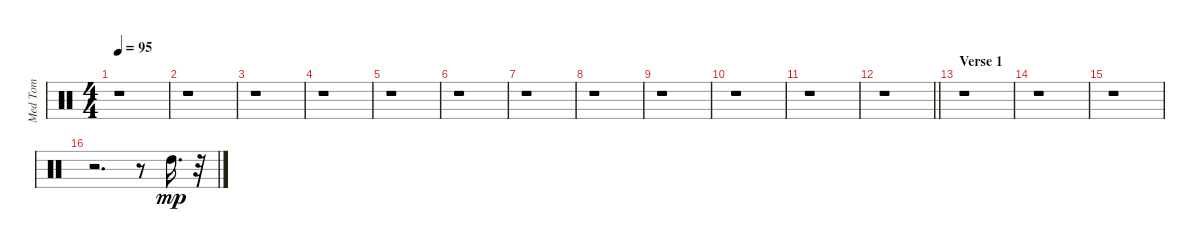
\track ("Med Tom" "Med Tom") {instrument percussion}
\staff {score}
\articulation defaults
\ts (4 4)
\tempo 95
\clef neutral
\ks c
r.1{dy mp} |
r.1 |
r.1 |
r.1 |
r.1 |
r.1 |
r.1 |
r.1 |
r.1 |
r.1 |
r.1 |
\barLineRight lightlight
r.1 |
\section ("" "Verse 1")
r.1 |
r.1 |
r.1 |
r.2{d} r.8 "High Tom (hit)".16{d} r.32
